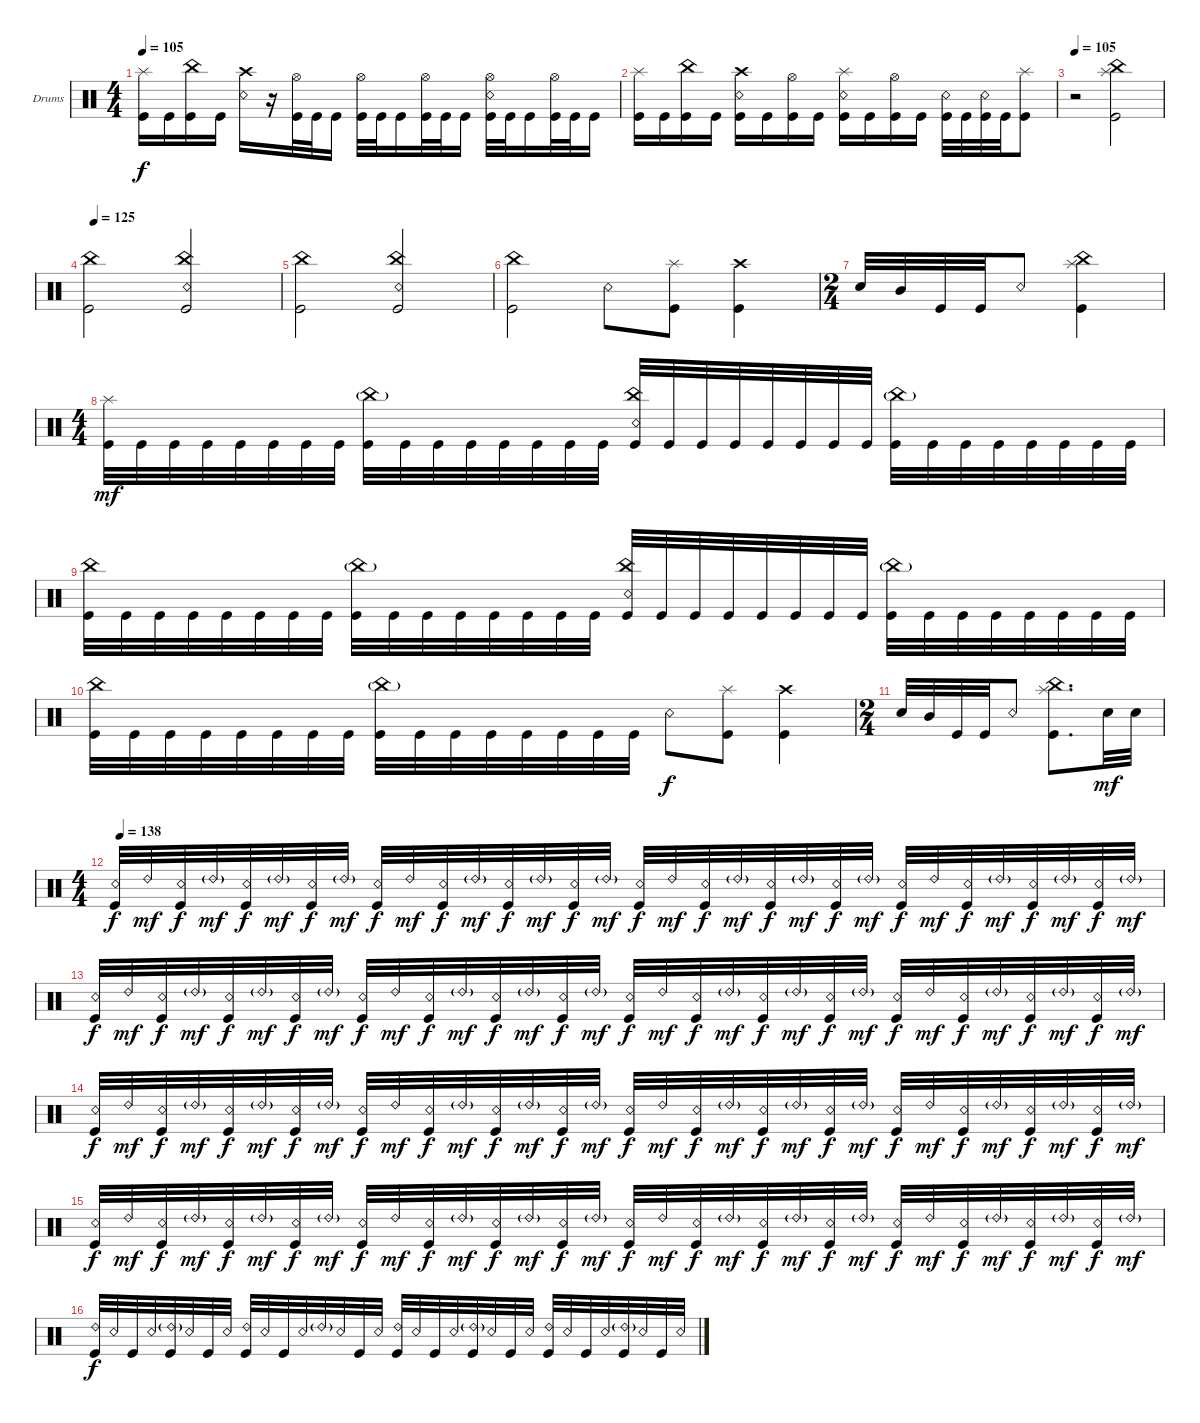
\defaultSystemsLayout 4
\bracketExtendMode groupsimilarinstruments
\firstSystemTrackNameOrientation horizontal
\otherSystemsTrackNameOrientation horizontal
\track ("Drumkit" "Drums") {instrument percussion}
\staff {score}
\articulation defaults
\ts (4 4)
\tempo 105
\clef neutral
\ks c
("Kick (hit)" "Splash (hit)").16{dy f} "Kick (hit)".16 ("Kick (hit)" "China (hit)").16 "Kick (hit)".16 ("Snare (rim shot)" "Crash high (hit)").16 r.16 ("Kick (hit)" "Hi-Hat (open)").32 "Kick (hit)".32 "Kick (hit)".16 ("Kick (hit)" "Hi-Hat (open)").32 "Kick (hit)".32 "Kick (hit)".16 ("Kick (hit)" "Hi-Hat (open)").32 "Kick (hit)".32 "Kick (hit)".16 ("Kick (hit)" "Snare (rim shot)" "Hi-Hat (open)").32 "Kick (hit)".32 "Kick (hit)".16 ("Kick (hit)" "Hi-Hat (open)").32 "Kick (hit)".32 "Kick (hit)".16 |
("Kick (hit)" "Splash (hit)").16 "Kick (hit)".16 ("Kick (hit)" "China (hit)").16 "Kick (hit)".16 ("Kick (hit)" "Snare (rim shot)" "Crash high (hit)").16 "Kick (hit)".16 ("Kick (hit)" "Hi-Hat (open)").16 "Kick (hit)".16 ("Kick (hit)" "Snare (rim shot)" "Splash (hit)").16 "Kick (hit)".16 ("Kick (hit)" "Hi-Hat (open)").16 "Kick (hit)".16 ("Kick (hit)" "Snare (rim shot)").32 "Kick (hit)".32 ("Kick (hit)" "Snare (rim shot)").32 "Kick (hit)".32 ("Kick (hit)" "Splash (hit)").8 |
\tempo (105 0.00625)
r.2 ("Kick (hit)" "Splash (hit)" "China (hit)").2 |
\tempo (125 0.0125)
("Kick (hit)" "China (hit)").2 ("Kick (hit)" "Snare (rim shot)" "China (hit)").2 |
("Kick (hit)" "China (hit)").2 ("Kick (hit)" "Snare (rim shot)" "China (hit)").2 |
("Kick (hit)" "China (hit)").2 "Snare (rim shot)".8 ("Kick (hit)" "Splash (hit)").8 ("Kick (hit)" "Crash high (hit)").4 |
\ts (2 4)
"Snare (hit) 2".32 "Mid Tom (hit)".32 "Kick (hit)".32 "Kick (hit)".32 "Snare (rim shot)".8 ("Kick (hit)" "China (hit)" "Splash (hit)").4 |
\ts (4 4)
("Kick (hit)" "Splash (hit)").32{dy mf} "Kick (hit)".32 "Kick (hit)".32 "Kick (hit)".32 "Kick (hit)".32 "Kick (hit)".32 "Kick (hit)".32 "Kick (hit)".32 ("Kick (hit)" "China (hit)"{g}).32 "Kick (hit)".32 "Kick (hit)".32 "Kick (hit)".32 "Kick (hit)".32 "Kick (hit)".32 "Kick (hit)".32 "Kick (hit)".32 ("Kick (hit)" "Snare (rim shot)" "China (hit)").32 "Kick (hit)".32 "Kick (hit)".32 "Kick (hit)".32 "Kick (hit)".32 "Kick (hit)".32 "Kick (hit)".32 "Kick (hit)".32 ("Kick (hit)" "China (hit)"{g}).32 "Kick (hit)".32 "Kick (hit)".32 "Kick (hit)".32 "Kick (hit)".32 "Kick (hit)".32 "Kick (hit)".32 "Kick (hit)".32 |
("Kick (hit)" "China (hit)").32 "Kick (hit)".32 "Kick (hit)".32 "Kick (hit)".32 "Kick (hit)".32 "Kick (hit)".32 "Kick (hit)".32 "Kick (hit)".32 ("Kick (hit)" "China (hit)"{g}).32 "Kick (hit)".32 "Kick (hit)".32 "Kick (hit)".32 "Kick (hit)".32 "Kick (hit)".32 "Kick (hit)".32 "Kick (hit)".32 ("Kick (hit)" "Snare (rim shot)" "China (hit)").32 "Kick (hit)".32 "Kick (hit)".32 "Kick (hit)".32 "Kick (hit)".32 "Kick (hit)".32 "Kick (hit)".32 "Kick (hit)".32 ("Kick (hit)" "China (hit)"{g}).32 "Kick (hit)".32 "Kick (hit)".32 "Kick (hit)".32 "Kick (hit)".32 "Kick (hit)".32 "Kick (hit)".32 "Kick (hit)".32 |
("Kick (hit)" "China (hit)").32 "Kick (hit)".32 "Kick (hit)".32 "Kick (hit)".32 "Kick (hit)".32 "Kick (hit)".32 "Kick (hit)".32 "Kick (hit)".32 ("Kick (hit)" "China (hit)"{g}).32 "Kick (hit)".32 "Kick (hit)".32 "Kick (hit)".32 "Kick (hit)".32 "Kick (hit)".32 "Kick (hit)".32 "Kick (hit)".32 "Snare (rim shot)".8{dy f} ("Kick (hit)" "Splash (hit)").8 ("Kick (hit)" "Crash high (hit)").4 |
\ts (2 4)
"Snare (hit) 2".32 "Mid Tom (hit)".32 "Kick (hit)".32 "Kick (hit)".32 "Snare (rim shot)".8 ("Kick (hit)" "China (hit)" "Splash (hit)").8{d} "Snare (hit) 2".32{dy mf} "Snare (hit) 2".32 |
\ts (4 4)
\tempo (138 0.00625)
("Kick (hit)" "Snare (rim shot)").32{dy f} "Ride (bell) 2".32{dy mf} ("Kick (hit)" "Snare (rim shot)").32{dy f} "Ride (bell) 2"{g}.32{dy mf} ("Kick (hit)" "Snare (rim shot)").32{dy f} "Ride (bell) 2"{g}.32{dy mf} ("Kick (hit)" "Snare (rim shot)").32{dy f} "Ride (bell) 2"{g}.32{dy mf} ("Kick (hit)" "Snare (rim shot)").32{dy f} "Ride (bell) 2".32{dy mf} ("Kick (hit)" "Snare (rim shot)").32{dy f} "Ride (bell) 2"{g}.32{dy mf} ("Kick (hit)" "Snare (rim shot)").32{dy f} "Ride (bell) 2"{g}.32{dy mf} ("Kick (hit)" "Snare (rim shot)").32{dy f} "Ride (bell) 2"{g}.32{dy mf} ("Kick (hit)" "Snare (rim shot)").32{dy f} "Ride (bell) 2".32{dy mf} ("Kick (hit)" "Snare (rim shot)").32{dy f} "Ride (bell) 2"{g}.32{dy mf} ("Kick (hit)" "Snare (rim shot)").32{dy f} "Ride (bell) 2"{g}.32{dy mf} ("Kick (hit)" "Snare (rim shot)").32{dy f} "Ride (bell) 2"{g}.32{dy mf} ("Kick (hit)" "Snare (rim shot)").32{dy f} "Ride (bell) 2".32{dy mf} ("Kick (hit)" "Snare (rim shot)").32{dy f} "Ride (bell) 2"{g}.32{dy mf} ("Kick (hit)" "Snare (rim shot)").32{dy f} "Ride (bell) 2"{g}.32{dy mf} ("Kick (hit)" "Snare (rim shot)").32{dy f} "Ride (bell) 2"{g}.32{dy mf} |
("Kick (hit)" "Snare (rim shot)").32{dy f} "Ride (bell) 2".32{dy mf} ("Kick (hit)" "Snare (rim shot)").32{dy f} "Ride (bell) 2"{g}.32{dy mf} ("Kick (hit)" "Snare (rim shot)").32{dy f} "Ride (bell) 2"{g}.32{dy mf} ("Kick (hit)" "Snare (rim shot)").32{dy f} "Ride (bell) 2"{g}.32{dy mf} ("Kick (hit)" "Snare (rim shot)").32{dy f} "Ride (bell) 2".32{dy mf} ("Kick (hit)" "Snare (rim shot)").32{dy f} "Ride (bell) 2"{g}.32{dy mf} ("Kick (hit)" "Snare (rim shot)").32{dy f} "Ride (bell) 2"{g}.32{dy mf} ("Kick (hit)" "Snare (rim shot)").32{dy f} "Ride (bell) 2"{g}.32{dy mf} ("Kick (hit)" "Snare (rim shot)").32{dy f} "Ride (bell) 2".32{dy mf} ("Kick (hit)" "Snare (rim shot)").32{dy f} "Ride (bell) 2"{g}.32{dy mf} ("Kick (hit)" "Snare (rim shot)").32{dy f} "Ride (bell) 2"{g}.32{dy mf} ("Kick (hit)" "Snare (rim shot)").32{dy f} "Ride (bell) 2"{g}.32{dy mf} ("Kick (hit)" "Snare (rim shot)").32{dy f} "Ride (bell) 2".32{dy mf} ("Kick (hit)" "Snare (rim shot)").32{dy f} "Ride (bell) 2"{g}.32{dy mf} ("Kick (hit)" "Snare (rim shot)").32{dy f} "Ride (bell) 2"{g}.32{dy mf} ("Kick (hit)" "Snare (rim shot)").32{dy f} "Ride (bell) 2"{g}.32{dy mf} |
("Kick (hit)" "Snare (rim shot)").32{dy f} "Ride (bell) 2".32{dy mf} ("Kick (hit)" "Snare (rim shot)").32{dy f} "Ride (bell) 2"{g}.32{dy mf} ("Kick (hit)" "Snare (rim shot)").32{dy f} "Ride (bell) 2"{g}.32{dy mf} ("Kick (hit)" "Snare (rim shot)").32{dy f} "Ride (bell) 2"{g}.32{dy mf} ("Kick (hit)" "Snare (rim shot)").32{dy f} "Ride (bell) 2".32{dy mf} ("Kick (hit)" "Snare (rim shot)").32{dy f} "Ride (bell) 2"{g}.32{dy mf} ("Kick (hit)" "Snare (rim shot)").32{dy f} "Ride (bell) 2"{g}.32{dy mf} ("Kick (hit)" "Snare (rim shot)").32{dy f} "Ride (bell) 2"{g}.32{dy mf} ("Kick (hit)" "Snare (rim shot)").32{dy f} "Ride (bell) 2".32{dy mf} ("Kick (hit)" "Snare (rim shot)").32{dy f} "Ride (bell) 2"{g}.32{dy mf} ("Kick (hit)" "Snare (rim shot)").32{dy f} "Ride (bell) 2"{g}.32{dy mf} ("Kick (hit)" "Snare (rim shot)").32{dy f} "Ride (bell) 2"{g}.32{dy mf} ("Kick (hit)" "Snare (rim shot)").32{dy f} "Ride (bell) 2".32{dy mf} ("Kick (hit)" "Snare (rim shot)").32{dy f} "Ride (bell) 2"{g}.32{dy mf} ("Kick (hit)" "Snare (rim shot)").32{dy f} "Ride (bell) 2"{g}.32{dy mf} ("Kick (hit)" "Snare (rim shot)").32{dy f} "Ride (bell) 2"{g}.32{dy mf} |
("Kick (hit)" "Snare (rim shot)").32{dy f} "Ride (bell) 2".32{dy mf} ("Kick (hit)" "Snare (rim shot)").32{dy f} "Ride (bell) 2"{g}.32{dy mf} ("Kick (hit)" "Snare (rim shot)").32{dy f} "Ride (bell) 2"{g}.32{dy mf} ("Kick (hit)" "Snare (rim shot)").32{dy f} "Ride (bell) 2"{g}.32{dy mf} ("Kick (hit)" "Snare (rim shot)").32{dy f} "Ride (bell) 2".32{dy mf} ("Kick (hit)" "Snare (rim shot)").32{dy f} "Ride (bell) 2"{g}.32{dy mf} ("Kick (hit)" "Snare (rim shot)").32{dy f} "Ride (bell) 2"{g}.32{dy mf} ("Kick (hit)" "Snare (rim shot)").32{dy f} "Ride (bell) 2"{g}.32{dy mf} ("Kick (hit)" "Snare (rim shot)").32{dy f} "Ride (bell) 2".32{dy mf} ("Kick (hit)" "Snare (rim shot)").32{dy f} "Ride (bell) 2"{g}.32{dy mf} ("Kick (hit)" "Snare (rim shot)").32{dy f} "Ride (bell) 2"{g}.32{dy mf} ("Kick (hit)" "Snare (rim shot)").32{dy f} "Ride (bell) 2"{g}.32{dy mf} ("Kick (hit)" "Snare (rim shot)").32{dy f} "Ride (bell) 2".32{dy mf} ("Kick (hit)" "Snare (rim shot)").32{dy f} "Ride (bell) 2"{g}.32{dy mf} ("Kick (hit)" "Snare (rim shot)").32{dy f} "Ride (bell) 2"{g}.32{dy mf} ("Kick (hit)" "Snare (rim shot)").32{dy f} "Ride (bell) 2"{g}.32{dy mf} |
("Ride (bell) 2" "Kick (hit)").32{dy f} "Snare (rim shot)".32 "Kick (hit)".32 "Snare (rim shot)".32 ("Kick (hit)" "Ride (bell) 2"{g}).32 "Snare (rim shot)".32 "Kick (hit)".32 "Snare (rim shot)".32 ("Ride (bell) 2" "Kick (hit)").32 "Snare (rim shot)".32 "Kick (hit)".32 "Snare (rim shot)".32 "Ride (bell) 2"{g}.32 "Snare (rim shot)".32 "Kick (hit)".32 "Snare (rim shot)".32 ("Ride (bell) 2" "Kick (hit)").32 "Snare (rim shot)".32 "Kick (hit)".32 "Snare (rim shot)".32 ("Kick (hit)" "Ride (bell) 2"{g}).32 "Snare (rim shot)".32 "Kick (hit)".32 "Snare (rim shot)".32 ("Ride (bell) 2" "Kick (hit)").32 "Snare (rim shot)".32 "Kick (hit)".32 "Snare (rim shot)".32 ("Kick (hit)" "Ride (bell) 2"{g}).32 "Snare (rim shot)".32 "Kick (hit)".32 "Snare (rim shot)".32
